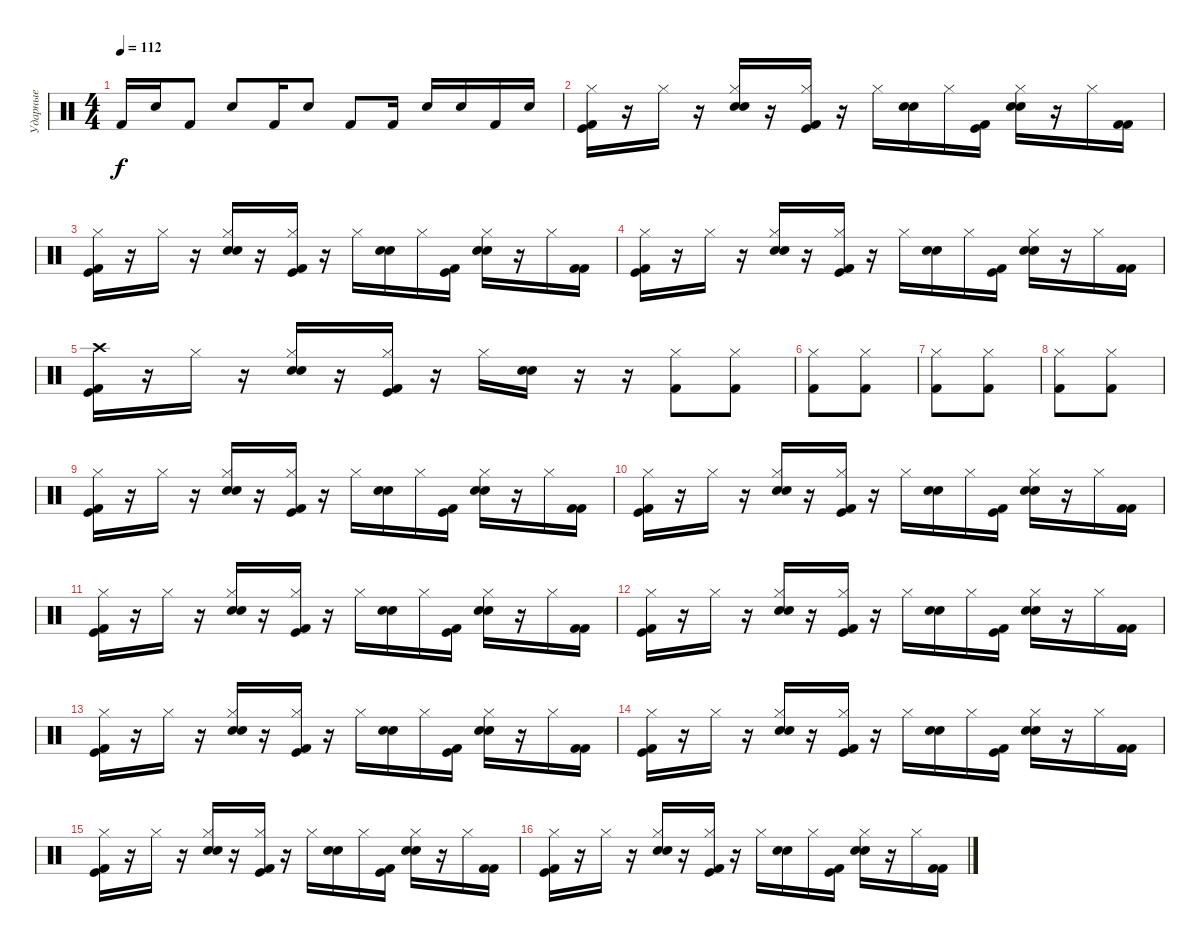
\track ("Ударные" "Ударные") {instrument percussion}
\staff {score}
\articulation defaults
\ts (4 4)
\tempo 112
\clef neutral
\ks c "Kick (hit) 2".16{dy f} "Electric Snare (hit)".16 "Kick (hit) 2".8 "Electric Snare (hit)".8 "Kick (hit) 2".16 "Electric Snare (hit)".8 "Kick (hit) 2".8 "Kick (hit) 2".16 "Electric Snare (hit)".16 "Electric Snare (hit)".16 "Kick (hit) 2".16 "Electric Snare (hit)".16
|
("Hi-Hat (closed)" "Kick (hit)" "Kick (hit) 2").16 r.16 "Hi-Hat (closed)".16 r.16 ("Hi-Hat (closed)" "Electric Snare (hit)" "Snare (hit) 2").16 r.16 ("Hi-Hat (closed)" "Kick (hit)" "Kick (hit) 2").16 r.16 "Hi-Hat (closed)".16 ("Snare (hit) 2" "Electric Snare (hit)").16 "Hi-Hat (closed)".16 ("Kick (hit)" "Kick (hit) 2").16 ("Hi-Hat (closed)" "Electric Snare (hit)" "Snare (hit) 2").16 r.16 "Hi-Hat (closed)".16 ("Kick (hit) 2" "Kick (hit) 2").16 |
("Hi-Hat (closed)" "Kick (hit)" "Kick (hit) 2").16 r.16 "Hi-Hat (closed)".16 r.16 ("Hi-Hat (closed)" "Electric Snare (hit)" "Snare (hit) 2").16 r.16 ("Hi-Hat (closed)" "Kick (hit)" "Kick (hit) 2").16 r.16 "Hi-Hat (closed)".16 ("Snare (hit) 2" "Electric Snare (hit)").16 "Hi-Hat (closed)".16 ("Kick (hit)" "Kick (hit) 2").16 ("Hi-Hat (closed)" "Electric Snare (hit)" "Snare (hit) 2").16 r.16 "Hi-Hat (closed)".16 ("Kick (hit) 2" "Kick (hit) 2").16 |
("Hi-Hat (closed)" "Kick (hit)" "Kick (hit) 2").16 r.16 "Hi-Hat (closed)".16 r.16 ("Hi-Hat (closed)" "Electric Snare (hit)" "Snare (hit) 2").16 r.16 ("Hi-Hat (closed)" "Kick (hit)" "Kick (hit) 2").16 r.16 "Hi-Hat (closed)".16 ("Snare (hit) 2" "Electric Snare (hit)").16 "Hi-Hat (closed)".16 ("Kick (hit)" "Kick (hit) 2").16 ("Hi-Hat (closed)" "Electric Snare (hit)" "Snare (hit) 2").16 r.16 "Hi-Hat (closed)".16 ("Kick (hit) 2" "Kick (hit) 2").16 |
("Crash high (hit)" "Kick (hit)" "Kick (hit) 2").16 r.16 "Hi-Hat (closed)".16 r.16 ("Hi-Hat (closed)" "Electric Snare (hit)" "Snare (hit) 2").16 r.16 ("Hi-Hat (closed)" "Kick (hit)" "Kick (hit) 2").16 r.16 "Hi-Hat (closed)".16 ("Snare (hit) 2" "Electric Snare (hit)").16 r.16 r.16 ("Kick (hit) 2" "Hi-Hat (closed)").8 ("Kick (hit) 2" "Hi-Hat (closed)").8 |
("Kick (hit) 2" "Hi-Hat (closed)").8 ("Kick (hit) 2" "Hi-Hat (closed)").8 |
("Kick (hit) 2" "Hi-Hat (closed)").8 ("Kick (hit) 2" "Hi-Hat (closed)").8 |
("Kick (hit) 2" "Hi-Hat (closed)").8 ("Kick (hit) 2" "Hi-Hat (closed)").8 |
("Hi-Hat (closed)" "Kick (hit)" "Kick (hit) 2").16 r.16 "Hi-Hat (closed)".16 r.16 ("Hi-Hat (closed)" "Electric Snare (hit)" "Snare (hit) 2").16 r.16 ("Hi-Hat (closed)" "Kick (hit)" "Kick (hit) 2").16 r.16 "Hi-Hat (closed)".16 ("Snare (hit) 2" "Electric Snare (hit)").16 "Hi-Hat (closed)".16 ("Kick (hit)" "Kick (hit) 2").16 ("Hi-Hat (closed)" "Electric Snare (hit)" "Snare (hit) 2").16 r.16 "Hi-Hat (closed)".16 ("Kick (hit) 2" "Kick (hit) 2").16 |
("Hi-Hat (closed)" "Kick (hit)" "Kick (hit) 2").16 r.16 "Hi-Hat (closed)".16 r.16 ("Hi-Hat (closed)" "Electric Snare (hit)" "Snare (hit) 2").16 r.16 ("Hi-Hat (closed)" "Kick (hit)" "Kick (hit) 2").16 r.16 "Hi-Hat (closed)".16 ("Snare (hit) 2" "Electric Snare (hit)").16 "Hi-Hat (closed)".16 ("Kick (hit)" "Kick (hit) 2").16 ("Hi-Hat (closed)" "Electric Snare (hit)" "Snare (hit) 2").16 r.16 "Hi-Hat (closed)".16 ("Kick (hit) 2" "Kick (hit) 2").16 |
("Hi-Hat (closed)" "Kick (hit)" "Kick (hit) 2").16 r.16 "Hi-Hat (closed)".16 r.16 ("Hi-Hat (closed)" "Electric Snare (hit)" "Snare (hit) 2").16 r.16 ("Hi-Hat (closed)" "Kick (hit)" "Kick (hit) 2").16 r.16 "Hi-Hat (closed)".16 ("Snare (hit) 2" "Electric Snare (hit)").16 "Hi-Hat (closed)".16 ("Kick (hit)" "Kick (hit) 2").16 ("Hi-Hat (closed)" "Electric Snare (hit)" "Snare (hit) 2").16 r.16 "Hi-Hat (closed)".16 ("Kick (hit) 2" "Kick (hit) 2").16 |
("Hi-Hat (closed)" "Kick (hit)" "Kick (hit) 2").16 r.16 "Hi-Hat (closed)".16 r.16 ("Hi-Hat (closed)" "Electric Snare (hit)" "Snare (hit) 2").16 r.16 ("Hi-Hat (closed)" "Kick (hit)" "Kick (hit) 2").16 r.16 "Hi-Hat (closed)".16 ("Snare (hit) 2" "Electric Snare (hit)").16 "Hi-Hat (closed)".16 ("Kick (hit)" "Kick (hit) 2").16 ("Hi-Hat (closed)" "Electric Snare (hit)" "Snare (hit) 2").16 r.16 "Hi-Hat (closed)".16 ("Kick (hit) 2" "Kick (hit) 2").16 |
("Hi-Hat (closed)" "Kick (hit)" "Kick (hit) 2").16 r.16 "Hi-Hat (closed)".16 r.16 ("Hi-Hat (closed)" "Electric Snare (hit)" "Snare (hit) 2").16 r.16 ("Hi-Hat (closed)" "Kick (hit)" "Kick (hit) 2").16 r.16 "Hi-Hat (closed)".16 ("Snare (hit) 2" "Electric Snare (hit)").16 "Hi-Hat (closed)".16 ("Kick (hit)" "Kick (hit) 2").16 ("Hi-Hat (closed)" "Electric Snare (hit)" "Snare (hit) 2").16 r.16 "Hi-Hat (closed)".16 ("Kick (hit) 2" "Kick (hit) 2").16 |
("Hi-Hat (closed)" "Kick (hit)" "Kick (hit) 2").16 r.16 "Hi-Hat (closed)".16 r.16 ("Hi-Hat (closed)" "Electric Snare (hit)" "Snare (hit) 2").16 r.16 ("Hi-Hat (closed)" "Kick (hit)" "Kick (hit) 2").16 r.16 "Hi-Hat (closed)".16 ("Snare (hit) 2" "Electric Snare (hit)").16 "Hi-Hat (closed)".16 ("Kick (hit)" "Kick (hit) 2").16 ("Hi-Hat (closed)" "Electric Snare (hit)" "Snare (hit) 2").16 r.16 "Hi-Hat (closed)".16 ("Kick (hit) 2" "Kick (hit) 2").16 |
("Hi-Hat (closed)" "Kick (hit)" "Kick (hit) 2").16 r.16 "Hi-Hat (closed)".16 r.16 ("Hi-Hat (closed)" "Electric Snare (hit)" "Snare (hit) 2").16 r.16 ("Hi-Hat (closed)" "Kick (hit)" "Kick (hit) 2").16 r.16 "Hi-Hat (closed)".16 ("Snare (hit) 2" "Electric Snare (hit)").16 "Hi-Hat (closed)".16 ("Kick (hit)" "Kick (hit) 2").16 ("Hi-Hat (closed)" "Electric Snare (hit)" "Snare (hit) 2").16 r.16 "Hi-Hat (closed)".16 ("Kick (hit) 2" "Kick (hit) 2").16 |
("Hi-Hat (closed)" "Kick (hit)" "Kick (hit) 2").16 r.16 "Hi-Hat (closed)".16 r.16 ("Hi-Hat (closed)" "Electric Snare (hit)" "Snare (hit) 2").16 r.16 ("Hi-Hat (closed)" "Kick (hit)" "Kick (hit) 2").16 r.16 "Hi-Hat (closed)".16 ("Snare (hit) 2" "Electric Snare (hit)").16 "Hi-Hat (closed)".16 ("Kick (hit)" "Kick (hit) 2").16 ("Hi-Hat (closed)" "Electric Snare (hit)" "Snare (hit) 2").16 r.16 "Hi-Hat (closed)".16 ("Kick (hit) 2" "Kick (hit) 2").16
